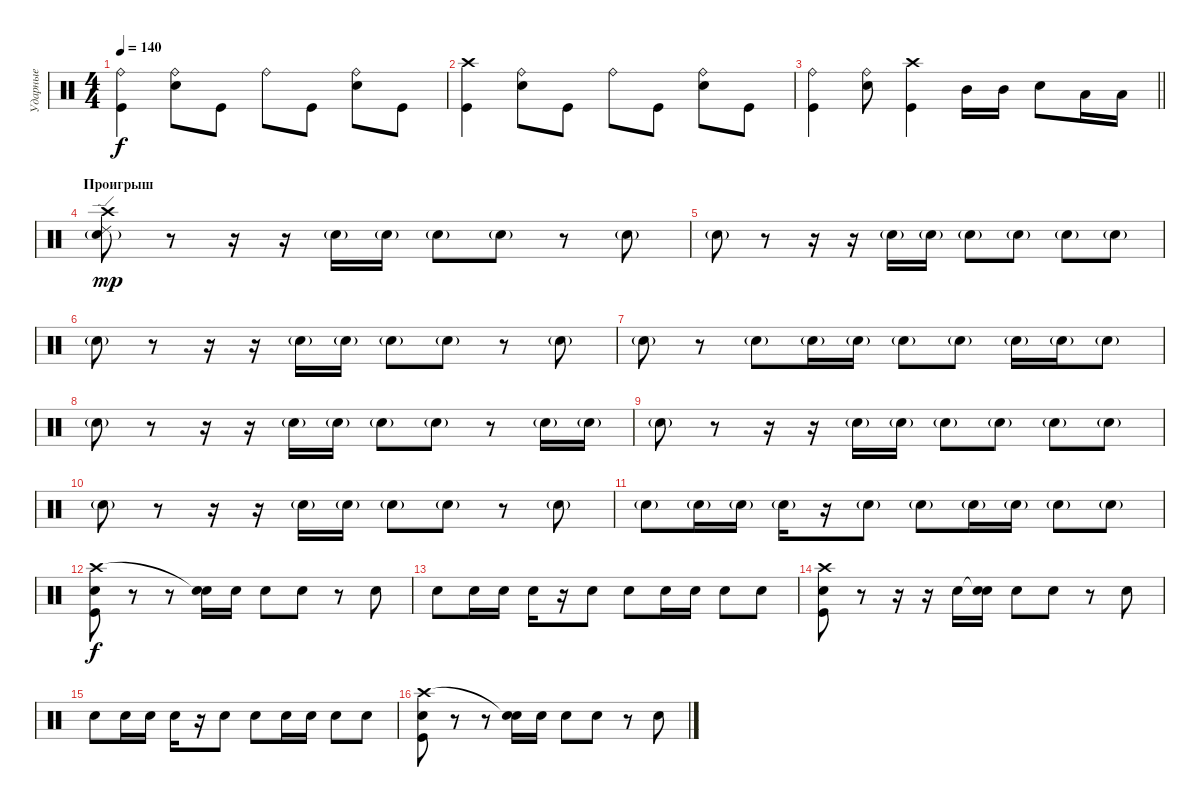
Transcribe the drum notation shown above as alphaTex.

\track ("Ударные" "Ударные") {instrument percussion}
\staff {score}
\articulation defaults
\ts (4 4)
\tempo 140
\clef neutral
\ks c
("Ride (bell)" "Kick (hit)").4{dy f} ("Ride (bell)" "Electric Snare (hit)").8 "Kick (hit)".8 "Ride (bell)".8 "Kick (hit)".8 ("Ride (bell)" "Electric Snare (hit)").8 "Kick (hit)".8 |
("Crash high (hit)" "Kick (hit)").4 ("Ride (bell)" "Electric Snare (hit)").8 "Kick (hit)".8 "Ride (bell)".8 "Kick (hit)".8 ("Ride (bell)" "Electric Snare (hit)").8 "Kick (hit)".8 |
\barLineRight lightlight
("Ride (bell)" "Kick (hit)").4 ("Ride (bell)" "Electric Snare (hit)").8 ("Crash high (hit)" "Kick (hit)").4 "Mid Tom (hit)".16 "Mid Tom (hit)".16 "Electric Snare (hit)".8 "Low Tom (hit)".16 "Low Tom (hit)".16 |
\section ("" "Проигрыш")
("Ride (edge) 2" "Electric Snare (hit)"{g} "Crash high (hit)").8{dy mp} r.8 r.16 r.16 "Electric Snare (hit)"{g}.16 "Electric Snare (hit)"{g}.16 "Electric Snare (hit)"{g}.8 "Electric Snare (hit)"{g}.8 r.8 "Electric Snare (hit)"{g}.8 |
"Electric Snare (hit)"{g}.8 r.8 r.16 r.16 "Electric Snare (hit)"{g}.16 "Electric Snare (hit)"{g}.16 "Electric Snare (hit)"{g}.8 "Electric Snare (hit)"{g}.8 "Electric Snare (hit)"{g}.8 "Electric Snare (hit)"{g}.8 |
"Electric Snare (hit)"{g}.8 r.8 r.16 r.16 "Electric Snare (hit)"{g}.16 "Electric Snare (hit)"{g}.16 "Electric Snare (hit)"{g}.8 "Electric Snare (hit)"{g}.8 r.8 "Electric Snare (hit)"{g}.8 |
"Electric Snare (hit)"{g}.8 r.8 "Electric Snare (hit)"{g}.8 "Electric Snare (hit)"{g}.16 "Electric Snare (hit)"{g}.16 "Electric Snare (hit)"{g}.8 "Electric Snare (hit)"{g}.8 "Electric Snare (hit)"{g}.16 "Electric Snare (hit)"{g}.16 "Electric Snare (hit)"{g}.8 |
"Electric Snare (hit)"{g}.8 r.8 r.16 r.16 "Electric Snare (hit)"{g}.16 "Electric Snare (hit)"{g}.16 "Electric Snare (hit)"{g}.8 "Electric Snare (hit)"{g}.8 r.8 "Electric Snare (hit)"{g}.16 "Electric Snare (hit)"{g}.16 |
"Electric Snare (hit)"{g}.8 r.8 r.16 r.16 "Electric Snare (hit)"{g}.16 "Electric Snare (hit)"{g}.16 "Electric Snare (hit)"{g}.8 "Electric Snare (hit)"{g}.8 "Electric Snare (hit)"{g}.8 "Electric Snare (hit)"{g}.8 |
"Electric Snare (hit)"{g}.8 r.8 r.16 r.16 "Electric Snare (hit)"{g}.16 "Electric Snare (hit)"{g}.16 "Electric Snare (hit)"{g}.8 "Electric Snare (hit)"{g}.8 r.8 "Electric Snare (hit)"{g}.8 |
"Electric Snare (hit)"{g}.8 "Electric Snare (hit)"{g}.16 "Electric Snare (hit)"{g}.16 "Electric Snare (hit)"{g}.16 r.16 "Electric Snare (hit)"{g}.8 "Electric Snare (hit)"{g}.8 "Electric Snare (hit)"{g}.16 "Electric Snare (hit)"{g}.16 "Electric Snare (hit)"{g}.8 "Electric Snare (hit)"{g}.8 |
("Crash high (hit)" "Electric Snare (hit)" "Kick (hit)").8{dy f} r.8 r.8 ("Snare (hit)"{t} "Electric Snare (hit)").16 "Electric Snare (hit)".16 "Electric Snare (hit)".8 "Electric Snare (hit)".8 r.8 "Electric Snare (hit)".8 |
"Electric Snare (hit)".8 "Electric Snare (hit)".16 "Electric Snare (hit)".16 "Electric Snare (hit)".16 r.16 "Electric Snare (hit)".8 "Electric Snare (hit)".8 "Electric Snare (hit)".16 "Electric Snare (hit)".16 "Electric Snare (hit)".8 "Electric Snare (hit)".8 |
("Crash high (hit)" "Electric Snare (hit)" "Kick (hit)").8 r.8 r.16 r.16 "Electric Snare (hit)".16 ("Snare (hit)"{t} "Electric Snare (hit)").16 "Electric Snare (hit)".8 "Electric Snare (hit)".8 r.8 "Electric Snare (hit)".8 |
"Electric Snare (hit)".8 "Electric Snare (hit)".16 "Electric Snare (hit)".16 "Electric Snare (hit)".16 r.16 "Electric Snare (hit)".8 "Electric Snare (hit)".8 "Electric Snare (hit)".16 "Electric Snare (hit)".16 "Electric Snare (hit)".8 "Electric Snare (hit)".8 |
("Crash high (hit)" "Electric Snare (hit)" "Kick (hit)").8 r.8 r.8 ("Snare (hit)"{t} "Electric Snare (hit)").16 "Electric Snare (hit)".16 "Electric Snare (hit)".8 "Electric Snare (hit)".8 r.8 "Electric Snare (hit)".8
